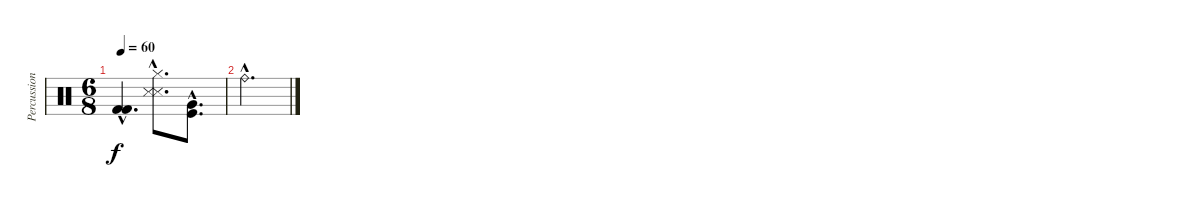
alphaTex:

\track ("Percussion" "Percussion") {instrument percussion}
\staff {score}
\articulation defaults
\ts (6 8)
\tempo 60
\clef neutral
\ks c
("Kick (hit) 2"{hac} "Kick (hit) 2"{hac}).4{d dy f} ("Hi-Hat (closed)"{hac} "Snare (side stick) 3"{hac} "Snare (side stick) 3"{hac}).8{d} ("Kick (hit)"{hac} "Very Low Tom (hit)"{hac}).8{d} |
"Ride (bell)"{hac}.2{d}
